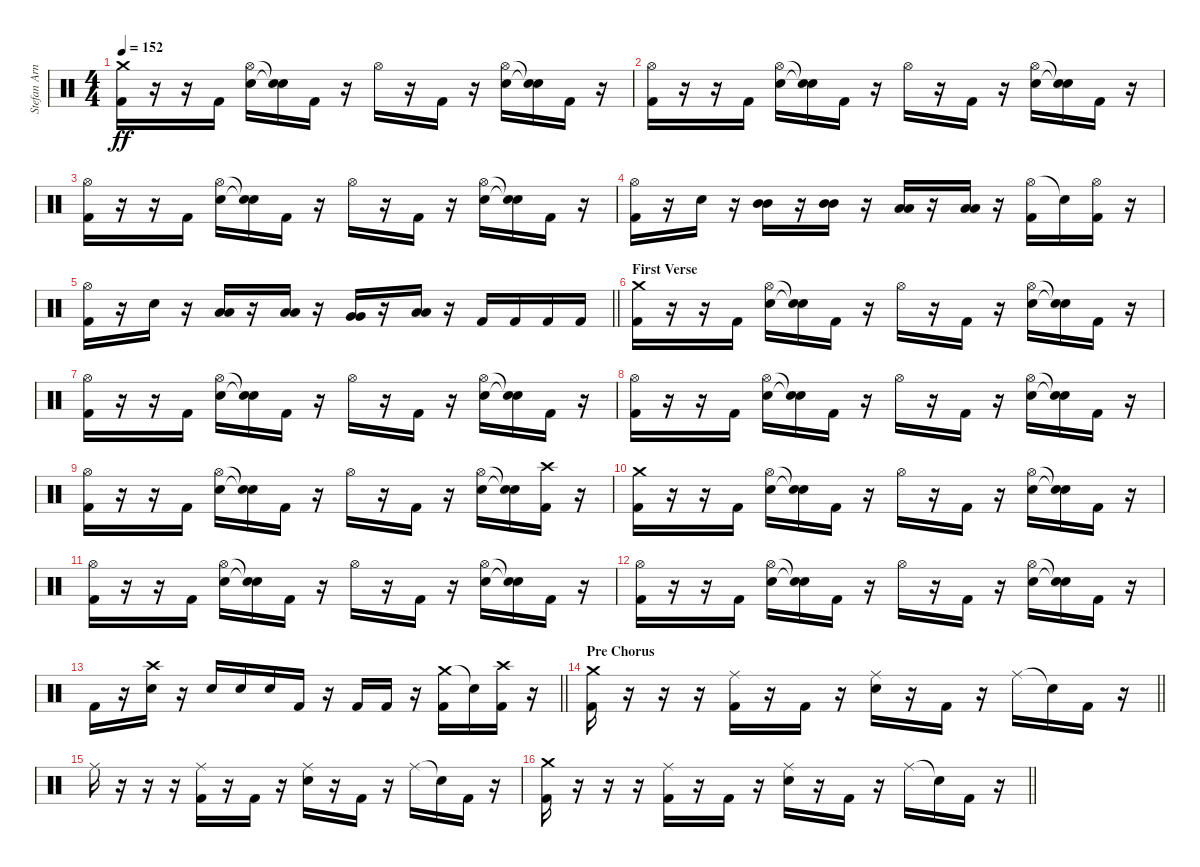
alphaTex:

\track ("Stefan Arnold" "Stefan Arn") {instrument percussion}
\staff {score}
\articulation defaults
\ts (4 4)
\tempo 152
\clef neutral
\ks c
("Crash medium (hit)" "Kick (hit) 2").16{dy ff} r.16 r.16 "Kick (hit) 2".16 ("Hi-Hat (open)" "Electric Snare (hit)").16 ("Snare (hit)"{t} "Electric Snare (hit)"{t}).16 "Kick (hit) 2".16 r.16 "Hi-Hat (open)".16 r.16 "Kick (hit) 2".16 r.16 ("Hi-Hat (open)" "Electric Snare (hit)").16 ("Snare (hit)"{t} "Electric Snare (hit)"{t}).16 "Kick (hit) 2".16 r.16 |
("Hi-Hat (open)" "Kick (hit) 2").16 r.16 r.16 "Kick (hit) 2".16 ("Hi-Hat (open)" "Electric Snare (hit)").16 ("Snare (hit)"{t} "Electric Snare (hit)"{t}).16 "Kick (hit) 2".16 r.16 "Hi-Hat (open)".16 r.16 "Kick (hit) 2".16 r.16 ("Hi-Hat (open)" "Electric Snare (hit)").16 ("Snare (hit)"{t} "Electric Snare (hit)"{t}).16 "Kick (hit) 2".16 r.16 |
("Hi-Hat (open)" "Kick (hit) 2").16 r.16 r.16 "Kick (hit) 2".16 ("Hi-Hat (open)" "Electric Snare (hit)").16 ("Snare (hit)"{t} "Electric Snare (hit)"{t}).16 "Kick (hit) 2".16 r.16 "Hi-Hat (open)".16 r.16 "Kick (hit) 2".16 r.16 ("Hi-Hat (open)" "Electric Snare (hit)").16 ("Snare (hit)"{t} "Electric Snare (hit)"{t}).16 "Kick (hit) 2".16 r.16 |
("Hi-Hat (open)" "Kick (hit) 2").16 r.16 "Electric Snare (hit)".16 r.16 ("Mid Tom (hit)" "Mid Tom (hit)").16 r.16 ("Mid Tom (hit)" "Mid Tom (hit)").16 r.16 ("Low Tom (hit)" "Low Tom (hit)").16 r.16 ("Low Tom (hit)" "Low Tom (hit)").16 r.16 ("Hi-Hat (open)" "Kick (hit) 2").16 "Snare (hit)"{t}.16 ("Hi-Hat (open)" "Kick (hit) 2").16 r.16 |
\barLineRight lightlight
("Hi-Hat (open)" "Kick (hit) 2").16 r.16 "Electric Snare (hit)".16 r.16 ("Low Tom (hit)" "Low Tom (hit)").16 r.16 ("Low Tom (hit)" "Low Tom (hit)").16 r.16 ("Very Low Tom (hit)" "Very Low Tom (hit)").16 r.16 ("Low Floor Tom (hit)" "Low Floor Tom (hit)").16 r.16 "Kick (hit) 2".16 "Kick (hit) 2".16 "Kick (hit) 2".16 "Kick (hit) 2".16 |
\section ("" "First Verse ")
("Crash medium (hit)" "Kick (hit) 2").16 r.16 r.16 "Kick (hit) 2".16 ("Hi-Hat (open)" "Electric Snare (hit)").16 ("Snare (hit)"{t} "Electric Snare (hit)"{t}).16 "Kick (hit) 2".16 r.16 "Hi-Hat (open)".16 r.16 "Kick (hit) 2".16 r.16 ("Hi-Hat (open)" "Electric Snare (hit)").16 ("Snare (hit)"{t} "Electric Snare (hit)"{t}).16 "Kick (hit) 2".16 r.16 |
("Hi-Hat (open)" "Kick (hit) 2").16 r.16 r.16 "Kick (hit) 2".16 ("Hi-Hat (open)" "Electric Snare (hit)").16 ("Snare (hit)"{t} "Electric Snare (hit)"{t}).16 "Kick (hit) 2".16 r.16 "Hi-Hat (open)".16 r.16 "Kick (hit) 2".16 r.16 ("Hi-Hat (open)" "Electric Snare (hit)").16 ("Snare (hit)"{t} "Electric Snare (hit)"{t}).16 "Kick (hit) 2".16 r.16 |
("Hi-Hat (open)" "Kick (hit) 2").16 r.16 r.16 "Kick (hit) 2".16 ("Hi-Hat (open)" "Electric Snare (hit)").16 ("Snare (hit)"{t} "Electric Snare (hit)"{t}).16 "Kick (hit) 2".16 r.16 "Hi-Hat (open)".16 r.16 "Kick (hit) 2".16 r.16 ("Hi-Hat (open)" "Electric Snare (hit)").16 ("Snare (hit)"{t} "Electric Snare (hit)"{t}).16 "Kick (hit) 2".16 r.16 |
("Hi-Hat (open)" "Kick (hit) 2").16 r.16 r.16 "Kick (hit) 2".16 ("Hi-Hat (open)" "Electric Snare (hit)").16 ("Snare (hit)"{t} "Electric Snare (hit)"{t}).16 "Kick (hit) 2".16 r.16 "Hi-Hat (open)".16 r.16 "Kick (hit) 2".16 r.16 ("Hi-Hat (open)" "Electric Snare (hit)").16 ("Snare (hit)"{t} "Electric Snare (hit)"{t}).16 ("Crash high (hit)" "Kick (hit) 2").16 r.16 |
("Crash medium (hit)" "Kick (hit) 2").16 r.16 r.16 "Kick (hit) 2".16 ("Hi-Hat (open)" "Electric Snare (hit)").16 ("Snare (hit)"{t} "Electric Snare (hit)"{t}).16 "Kick (hit) 2".16 r.16 "Hi-Hat (open)".16 r.16 "Kick (hit) 2".16 r.16 ("Hi-Hat (open)" "Electric Snare (hit)").16 ("Snare (hit)"{t} "Electric Snare (hit)"{t}).16 "Kick (hit) 2".16 r.16 |
("Hi-Hat (open)" "Kick (hit) 2").16 r.16 r.16 "Kick (hit) 2".16 ("Hi-Hat (open)" "Electric Snare (hit)").16 ("Snare (hit)"{t} "Electric Snare (hit)"{t}).16 "Kick (hit) 2".16 r.16 "Hi-Hat (open)".16 r.16 "Kick (hit) 2".16 r.16 ("Hi-Hat (open)" "Electric Snare (hit)").16 ("Snare (hit)"{t} "Electric Snare (hit)"{t}).16 "Kick (hit) 2".16 r.16 |
("Hi-Hat (open)" "Kick (hit) 2").16 r.16 r.16 "Kick (hit) 2".16 ("Hi-Hat (open)" "Electric Snare (hit)").16 ("Snare (hit)"{t} "Electric Snare (hit)"{t}).16 "Kick (hit) 2".16 r.16 "Hi-Hat (open)".16 r.16 "Kick (hit) 2".16 r.16 ("Hi-Hat (open)" "Electric Snare (hit)").16 ("Snare (hit)"{t} "Electric Snare (hit)"{t}).16 "Kick (hit) 2".16 r.16 |
\barLineRight lightlight "Kick (hit) 2".16
r.16 ("Crash high (hit)" "Electric Snare (hit)").16 r.16 "Electric Snare (hit)".16 "Electric Snare (hit)".16 "Electric Snare (hit)".16 "Kick (hit) 2".16 r.16 "Kick (hit) 2".16 "Kick (hit) 2".16 r.16 ("Crash medium (hit)" "Kick (hit) 2").16 "Snare (hit)"{t}.16 ("Crash high (hit)" "Kick (hit) 2").16 r.16 |
\section ("" "Pre Chorus")
\barLineRight lightlight
("Crash medium (hit)" "Kick (hit) 2").16 r.16 r.16 r.16 ("Ride (middle)" "Kick (hit) 2").16 r.16 "Kick (hit) 2".16 r.16 ("Ride (middle)" "Electric Snare (hit)").16 r.16 "Kick (hit) 2".16 r.16 "Ride (middle)".16 "Snare (hit)"{t}.16 "Kick (hit) 2".16 r.16 |
"Ride (middle)".16 r.16 r.16 r.16 ("Ride (middle)" "Kick (hit) 2").16 r.16 "Kick (hit) 2".16 r.16 ("Ride (middle)" "Electric Snare (hit)").16 r.16 "Kick (hit) 2".16 r.16 "Ride (middle)".16 "Snare (hit)"{t}.16 "Kick (hit) 2".16 r.16 |
\barLineRight lightlight
("Crash medium (hit)" "Kick (hit) 2").16 r.16 r.16 r.16 ("Ride (middle)" "Kick (hit) 2").16 r.16 "Kick (hit) 2".16 r.16 ("Ride (middle)" "Electric Snare (hit)").16 r.16 "Kick (hit) 2".16 r.16 "Ride (middle)".16 "Snare (hit)"{t}.16 "Kick (hit) 2".16 r.16
